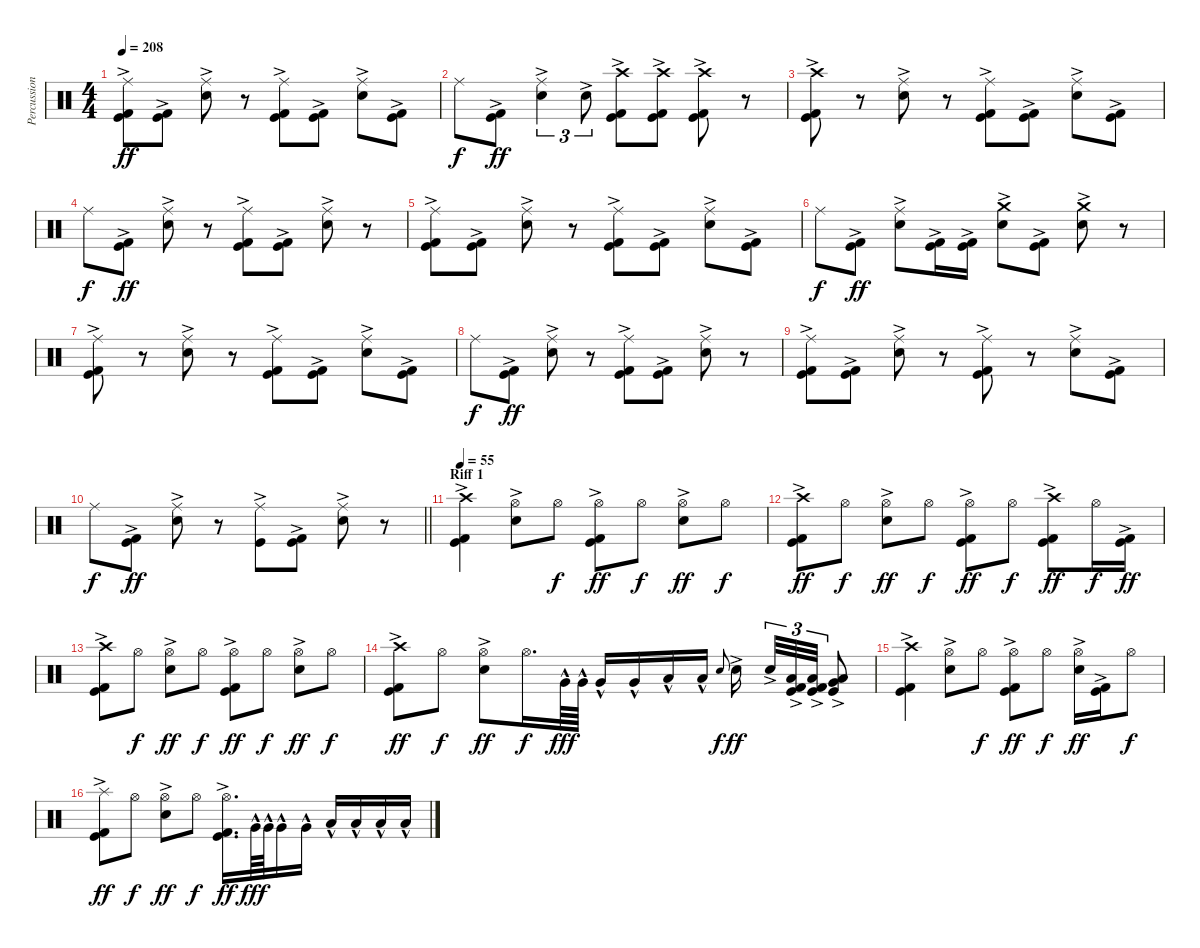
\track ("Percussion" "Percussion") {instrument percussion}
\staff {score}
\articulation defaults
\ts (4 4)
\tempo 208
\clef neutral
\ks c
("Kick (hit) 2"{ac} "Kick (hit)"{ac} "Ride (middle)").8{dy ff} ("Kick (hit) 2"{ac} "Kick (hit)"{ac}).8 ("Snare (hit) 2"{ac} "Ride (middle)").8 r.8 ("Kick (hit) 2"{ac} "Kick (hit)"{ac} "Ride (middle)").8 ("Kick (hit) 2"{ac} "Kick (hit)"{ac}).8 ("Snare (hit) 2"{ac} "Ride (middle)").8 ("Kick (hit)"{ac} "Kick (hit) 2"{ac}).8 |
"Ride (middle)".8{dy f} ("Kick (hit)"{ac} "Kick (hit) 2"{ac}).8{dy ff} ("Snare (hit) 2"{ac} "Ride (middle)").4{tu (3 2)} "Snare (hit) 2"{ac}.8{tu (3 2)} ("Kick (hit) 2"{ac} "Kick (hit)"{ac} "Crash high (hit)").8 ("Kick (hit) 2"{ac} "Kick (hit)"{ac} "Crash high (hit)").8 ("Kick (hit) 2"{ac} "Kick (hit)"{ac} "Crash high (hit)").8 r.8 |
("Kick (hit) 2"{ac} "Kick (hit)"{ac} "Crash high (hit)").8 r.8 ("Snare (hit) 2"{ac} "Ride (middle)").8 r.8 ("Kick (hit) 2"{ac} "Kick (hit)"{ac} "Ride (middle)").8 ("Kick (hit) 2"{ac} "Kick (hit)"{ac}).8 ("Snare (hit) 2"{ac} "Ride (middle)").8 ("Kick (hit) 2"{ac} "Kick (hit)"{ac}).8 |
"Ride (middle)".8{dy f} ("Kick (hit)"{ac} "Kick (hit) 2"{ac}).8{dy ff} ("Snare (hit) 2"{ac} "Ride (middle)").8 r.8 ("Kick (hit) 2"{ac} "Kick (hit)"{ac} "Ride (middle)").8 ("Kick (hit) 2"{ac} "Kick (hit)"{ac}).8 ("Snare (hit) 2"{ac} "Ride (middle)").8 r.8 |
("Kick (hit) 2"{ac} "Kick (hit)"{ac} "Ride (middle)").8 ("Kick (hit) 2"{ac} "Kick (hit)"{ac}).8 ("Snare (hit) 2"{ac} "Ride (middle)").8 r.8 ("Kick (hit) 2"{ac} "Kick (hit)"{ac} "Ride (middle)").8 ("Kick (hit) 2"{ac} "Kick (hit)"{ac}).8 ("Snare (hit) 2"{ac} "Ride (middle)").8 ("Kick (hit)"{ac} "Kick (hit) 2"{ac}).8 |
"Ride (middle)".8{dy f} ("Kick (hit)"{ac} "Kick (hit) 2"{ac}).8{dy ff} ("Snare (hit) 2"{ac} "Ride (middle)").8 ("Kick (hit)"{ac} "Kick (hit) 2"{ac}).16 ("Kick (hit)"{ac} "Kick (hit) 2"{ac}).16 ("Snare (hit) 2"{ac} "Crash medium (hit)").8 ("Kick (hit)"{ac} "Kick (hit) 2"{ac}).8 ("Snare (hit) 2"{ac} "Crash medium (hit)").8 r.8 |
("Kick (hit) 2"{ac} "Kick (hit)"{ac} "Ride (middle)").8 r.8 ("Snare (hit) 2"{ac} "Ride (middle)").8 r.8 ("Kick (hit) 2"{ac} "Kick (hit)"{ac} "Ride (middle)").8 ("Kick (hit) 2"{ac} "Kick (hit)"{ac}).8 ("Snare (hit) 2"{ac} "Ride (middle)").8 ("Kick (hit) 2"{ac} "Kick (hit)"{ac}).8 |
"Ride (middle)".8{dy f} ("Kick (hit)"{ac} "Kick (hit) 2"{ac}).8{dy ff} ("Snare (hit) 2"{ac} "Ride (middle)").8 r.8 ("Kick (hit) 2"{ac} "Kick (hit)"{ac} "Ride (middle)").8 ("Kick (hit) 2"{ac} "Kick (hit)"{ac}).8 ("Snare (hit) 2"{ac} "Ride (middle)").8 r.8 |
("Kick (hit) 2"{ac} "Kick (hit)"{ac} "Ride (middle)").8 ("Kick (hit) 2"{ac} "Kick (hit)"{ac}).8 ("Snare (hit) 2"{ac} "Ride (middle)").8 r.8 ("Kick (hit) 2"{ac} "Kick (hit)"{ac} "Ride (middle)").8 r.8 ("Snare (hit) 2"{ac} "Ride (middle)").8 ("Kick (hit)"{ac} "Kick (hit) 2"{ac}).8 |
\barLineRight lightlight "Ride (middle)".8{dy f}
("Kick (hit)"{ac} "Kick (hit) 2"{ac}).8{dy ff} ("Snare (hit) 2"{ac} "Ride (middle)").8 r.8 ("Kick (hit)"{ac} "Ride (middle)").8 ("Kick (hit)"{ac} "Kick (hit) 2"{ac}).8 ("Snare (hit) 2"{ac} "Ride (middle)").8 r.8 |
\section ("" "Riff 1")
\tempo 55
("Kick (hit)"{ac} "Crash high (hit)" "Kick (hit) 2"{ac}).4{volume 14} ("Snare (hit) 2"{ac} "Hi-Hat (open)").8 "Hi-Hat (open)".8{dy f} ("Kick (hit)"{ac} "Hi-Hat (open)" "Kick (hit) 2"{ac}).8{dy ff} "Hi-Hat (open)".8{dy f} ("Snare (hit) 2"{ac} "Hi-Hat (open)").8{dy ff} "Hi-Hat (open)".8{dy f} |
("Kick (hit)"{ac} "Crash high (hit)" "Kick (hit) 2"{ac}).8{dy ff} "Hi-Hat (open)".8{dy f} ("Snare (hit) 2"{ac} "Hi-Hat (open)").8{dy ff} "Hi-Hat (open)".8{dy f} ("Kick (hit)"{ac} "Hi-Hat (open)" "Kick (hit) 2"{ac}).8{dy ff} "Hi-Hat (open)".8{dy f} ("Kick (hit)"{ac} "Crash high (hit)" "Kick (hit) 2"{ac}).8{dy ff} "Hi-Hat (open)".16{dy f} ("Kick (hit)"{ac} "Kick (hit) 2"{ac}).16{dy ff} |
("Kick (hit)"{ac} "Crash high (hit)" "Kick (hit) 2"{ac}).8 "Hi-Hat (open)".8{dy f} ("Snare (hit) 2"{ac} "Hi-Hat (open)").8{dy ff} "Hi-Hat (open)".8{dy f} ("Kick (hit)"{ac} "Hi-Hat (open)" "Kick (hit) 2"{ac}).8{dy ff} "Hi-Hat (open)".8{dy f} ("Snare (hit) 2"{ac} "Hi-Hat (open)").8{dy ff} "Hi-Hat (open)".8{dy f} |
("Kick (hit)"{ac} "Crash high (hit)" "Kick (hit) 2"{ac}).8{dy ff} "Hi-Hat (open)".8{dy f} ("Snare (hit) 2"{ac} "Hi-Hat (open)").8{dy ff} "Hi-Hat (open)".16{d dy f} "Very Low Tom (hit)"{hac}.64{dy fff} "Very Low Tom (hit)"{hac}.64 "Very Low Tom (hit)"{hac}.16 "Very Low Tom (hit)"{hac}.16 "Low Tom (hit)"{hac}.16 "Low Tom (hit)"{hac}.16 "Snare (hit) 2".8{gr onbeat dy f} "Snare (hit) 2"{ac}.16{dy ff beam splitsecondary} "Snare (hit) 2"{ac}.32{tu (3 2)} ("Kick (hit) 2"{ac} "Kick (hit)"{ac} "Low Floor Tom (hit)"{ac}).32{tu (3 2)} ("Kick (hit)"{ac} "Kick (hit) 2"{ac} "Low Floor Tom (hit)"{ac}).32{tu (3 2)} ("Very Low Tom (hit)"{ac} "Low Floor Tom (hit)"{ac} "Kick (hit)"{ac}).8 |
("Kick (hit)"{ac} "Crash high (hit)" "Kick (hit) 2"{ac}).4 ("Snare (hit) 2"{ac} "Hi-Hat (open)").8 "Hi-Hat (open)".8{dy f} ("Kick (hit)"{ac} "Hi-Hat (open)" "Kick (hit) 2"{ac}).8{dy ff} "Hi-Hat (open)".8{dy f} ("Snare (hit) 2"{ac} "Hi-Hat (open)").16{dy ff} ("Kick (hit)"{ac} "Kick (hit) 2"{ac}).16 "Hi-Hat (open)".8{dy f} |
("Kick (hit)"{ac} "Splash (hit)" "Kick (hit) 2"{ac}).8{dy ff} "Hi-Hat (open)".8{dy f} ("Snare (hit) 2"{ac} "Hi-Hat (open)").8{dy ff} "Hi-Hat (open)".8{dy f} ("Kick (hit)"{ac} "Hi-Hat (open)" "Kick (hit) 2"{ac}).16{d dy ff} "Very Low Tom (hit)"{hac}.64{dy fff} "Very Low Tom (hit)"{hac}.64 "Very Low Tom (hit)"{hac}.16 "Very Low Tom (hit)"{hac}.16 "Low Tom (hit)"{hac}.16 "Low Tom (hit)"{hac}.16 "Low Tom (hit)"{hac}.16 "Low Tom (hit)"{hac}.16
